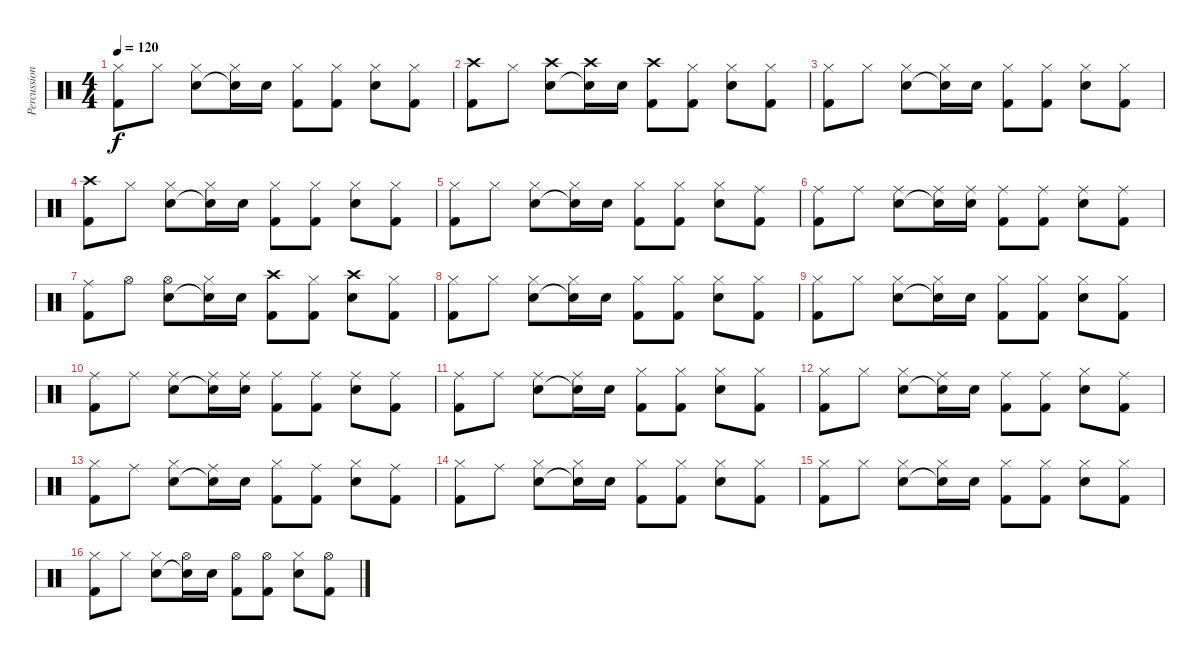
\track ("Percussions" "Percussion") {instrument percussion}
\staff {score}
\articulation defaults
\ts (4 4)
\tempo 120
\clef neutral
\ks c
("Hi-Hat (closed)" "Kick (hit) 2").8{dy f} "Hi-Hat (closed)".8 ("Hi-Hat (closed)" "Snare (hit) 2").8 ("Hi-Hat (closed)" "Snare (hit)"{t}).16 "Snare (hit) 2".16 ("Hi-Hat (closed)" "Kick (hit) 2").8 ("Hi-Hat (closed)" "Kick (hit) 2").8 ("Hi-Hat (closed)" "Snare (hit) 2").8 ("Hi-Hat (closed)" "Kick (hit) 2").8 |
("Crash high (hit)" "Kick (hit) 2").8 "Hi-Hat (closed)".8 ("Crash high (hit)" "Snare (hit) 2").8 ("Crash high (hit)" "Snare (hit)"{t}).16 "Snare (hit) 2".16 ("Crash high (hit)" "Kick (hit) 2").8 ("Hi-Hat (closed)" "Kick (hit) 2").8 ("Hi-Hat (closed)" "Snare (hit) 2").8 ("Hi-Hat (closed)" "Kick (hit) 2").8 |
("Hi-Hat (closed)" "Kick (hit) 2").8 "Hi-Hat (closed)".8 ("Hi-Hat (closed)" "Snare (hit) 2").8 ("Hi-Hat (closed)" "Snare (hit)"{t}).16 "Snare (hit) 2".16 ("Hi-Hat (closed)" "Kick (hit) 2").8 ("Hi-Hat (closed)" "Kick (hit) 2").8 ("Hi-Hat (closed)" "Snare (hit) 2").8 ("Hi-Hat (closed)" "Kick (hit) 2").8 |
("Crash high (hit)" "Kick (hit) 2").8 "Hi-Hat (closed)".8 ("Hi-Hat (closed)" "Snare (hit) 2").8 ("Hi-Hat (closed)" "Snare (hit)"{t}).16 "Snare (hit) 2".16 ("Hi-Hat (closed)" "Kick (hit) 2").8 ("Hi-Hat (closed)" "Kick (hit) 2").8 ("Hi-Hat (closed)" "Snare (hit) 2").8 ("Hi-Hat (closed)" "Kick (hit) 2").8 |
("Hi-Hat (closed)" "Kick (hit) 2").8 "Hi-Hat (closed)".8 ("Hi-Hat (closed)" "Snare (hit) 2").8 ("Hi-Hat (closed)" "Snare (hit)"{t}).16 "Snare (hit) 2".16 ("Hi-Hat (closed)" "Kick (hit) 2").8 ("Hi-Hat (closed)" "Kick (hit) 2").8 ("Hi-Hat (closed)" "Snare (hit) 2").8 ("Ride (middle)" "Kick (hit) 2").8 |
("Ride (middle)" "Kick (hit) 2").8 "Ride (middle)".8 ("Ride (middle)" "Snare (hit) 2").8 ("Ride (middle)" "Snare (hit)"{t}).16 ("Ride (middle)" "Snare (hit) 2").16 ("Ride (middle)" "Kick (hit) 2").8 ("Ride (middle)" "Kick (hit) 2").8 ("Ride (middle)" "Snare (hit) 2").8 ("Ride (middle)" "Kick (hit) 2").8 |
("Ride (middle)" "Kick (hit) 2").8 "Hi-Hat (open)".8 ("Hi-Hat (open)" "Snare (hit) 2").8 ("Hi-Hat (closed)" "Snare (hit)"{t}).16 "Snare (hit) 2".16 ("Crash high (hit)" "Kick (hit) 2").8 ("Hi-Hat (closed)" "Kick (hit) 2").8 ("Crash high (hit)" "Snare (hit) 2").8 ("Hi-Hat (closed)" "Kick (hit) 2").8 |
("Hi-Hat (closed)" "Kick (hit) 2").8 "Hi-Hat (closed)".8 ("Hi-Hat (closed)" "Snare (hit) 2").8 ("Hi-Hat (closed)" "Snare (hit)"{t}).16 "Snare (hit) 2".16 ("Hi-Hat (closed)" "Kick (hit) 2").8 ("Hi-Hat (closed)" "Kick (hit) 2").8 ("Hi-Hat (closed)" "Snare (hit) 2").8 ("Hi-Hat (closed)" "Kick (hit) 2").8 |
("Hi-Hat (closed)" "Kick (hit) 2").8 "Hi-Hat (closed)".8 ("Hi-Hat (closed)" "Snare (hit) 2").8 ("Hi-Hat (closed)" "Snare (hit)"{t}).16 "Snare (hit) 2".16 ("Hi-Hat (closed)" "Kick (hit) 2").8 ("Hi-Hat (closed)" "Kick (hit) 2").8 ("Hi-Hat (closed)" "Snare (hit) 2").8 ("Hi-Hat (closed)" "Kick (hit) 2").8 |
("Ride (middle)" "Kick (hit) 2").8 "Ride (middle)".8 ("Ride (middle)" "Snare (hit) 2").8 ("Ride (middle)" "Snare (hit)"{t}).16 ("Ride (middle)" "Snare (hit) 2").16 ("Ride (middle)" "Kick (hit) 2").8 ("Ride (middle)" "Kick (hit) 2").8 ("Ride (middle)" "Snare (hit) 2").8 ("Ride (middle)" "Kick (hit) 2").8 |
("Ride (middle)" "Kick (hit) 2").8 "Ride (middle)".8 ("Ride (middle)" "Snare (hit) 2").8 ("Ride (middle)" "Snare (hit)"{t}).16 "Snare (hit) 2".16 ("Hi-Hat (closed)" "Kick (hit) 2").8 ("Hi-Hat (closed)" "Kick (hit) 2").8 ("Hi-Hat (closed)" "Snare (hit) 2").8 ("Hi-Hat (closed)" "Kick (hit) 2").8 |
("Hi-Hat (closed)" "Kick (hit) 2").8 "Hi-Hat (closed)".8 ("Hi-Hat (closed)" "Snare (hit) 2").8 ("Ride (middle)" "Snare (hit)"{t}).16 "Snare (hit) 2".16 ("Ride (middle)" "Kick (hit) 2").8 ("Ride (middle)" "Kick (hit) 2").8 ("Hi-Hat (closed)" "Snare (hit) 2").8 ("Ride (middle)" "Kick (hit) 2").8 |
("Hi-Hat (closed)" "Kick (hit) 2").8 "Ride (middle)".8 ("Hi-Hat (closed)" "Snare (hit) 2").8 ("Ride (middle)" "Snare (hit)"{t}).16 "Snare (hit) 2".16 ("Hi-Hat (closed)" "Kick (hit) 2").8 ("Ride (middle)" "Kick (hit) 2").8 ("Hi-Hat (closed)" "Snare (hit) 2").8 ("Ride (middle)" "Kick (hit) 2").8 |
("Hi-Hat (closed)" "Kick (hit) 2").8 "Ride (middle)".8 ("Hi-Hat (closed)" "Snare (hit) 2").8 ("Hi-Hat (closed)" "Snare (hit)"{t}).16 "Snare (hit) 2".16 ("Hi-Hat (closed)" "Kick (hit) 2").8 ("Hi-Hat (closed)" "Kick (hit) 2").8 ("Hi-Hat (closed)" "Snare (hit) 2").8 ("Hi-Hat (closed)" "Kick (hit) 2").8 |
("Hi-Hat (closed)" "Kick (hit) 2").8 "Hi-Hat (closed)".8 ("Hi-Hat (closed)" "Snare (hit) 2").8 ("Hi-Hat (closed)" "Snare (hit)"{t}).16 "Snare (hit) 2".16 ("Hi-Hat (closed)" "Kick (hit) 2").8 ("Hi-Hat (closed)" "Kick (hit) 2").8 ("Hi-Hat (closed)" "Snare (hit) 2").8 ("Hi-Hat (closed)" "Kick (hit) 2").8 |
("Hi-Hat (closed)" "Kick (hit) 2").8 "Hi-Hat (closed)".8 ("Hi-Hat (closed)" "Snare (hit) 2").8 ("Hi-Hat (open)" "Snare (hit)"{t}).16 "Snare (hit) 2".16 ("Hi-Hat (open)" "Kick (hit) 2").8 ("Hi-Hat (open)" "Kick (hit) 2").8 ("Hi-Hat (closed)" "Snare (hit) 2").8 ("Hi-Hat (open)" "Kick (hit) 2").8
